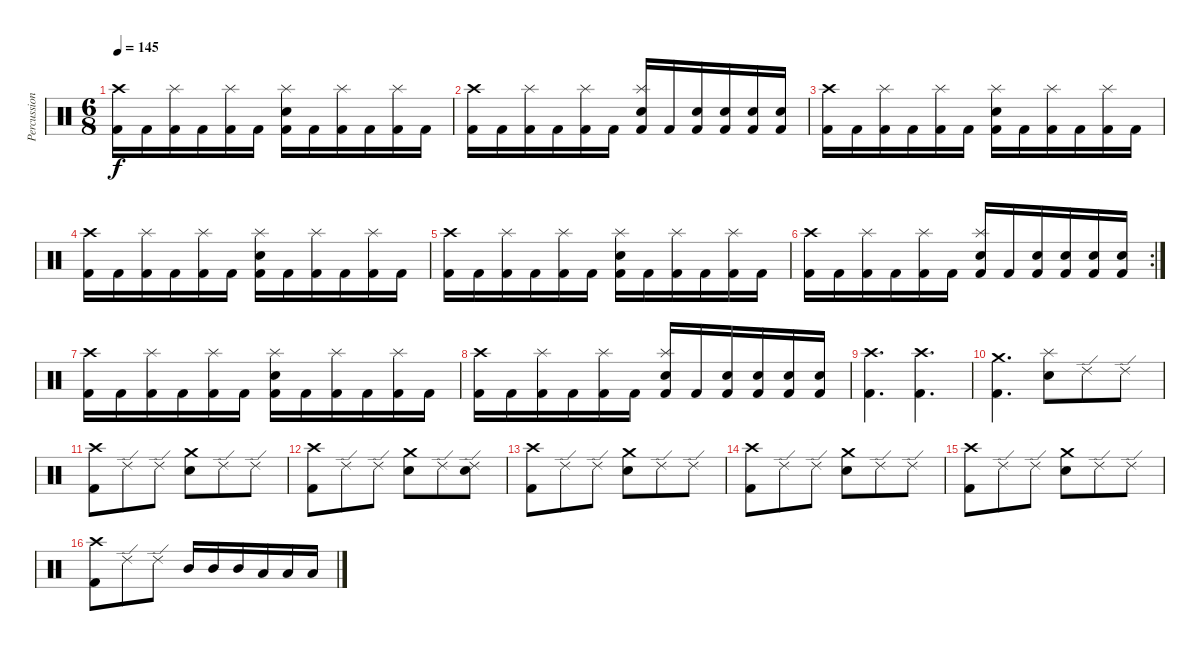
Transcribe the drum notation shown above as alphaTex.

\track ("Percussion" "Percussion") {instrument percussion}
\staff {score}
\articulation defaults
\ts (6 8)
\tempo 145
\clef neutral
\ks c
("Crash high (hit)" "Kick (hit) 2").16{dy f} "Kick (hit) 2".16 ("Splash (hit)" "Kick (hit) 2").16 "Kick (hit) 2".16 ("Splash (hit)" "Kick (hit) 2").16 "Kick (hit) 2".16 ("Splash (hit)" "Electric Snare (hit)" "Kick (hit) 2").16 "Kick (hit) 2".16 ("Splash (hit)" "Kick (hit) 2").16 "Kick (hit) 2".16 ("Splash (hit)" "Kick (hit) 2").16 "Kick (hit) 2".16 |
("Crash high (hit)" "Kick (hit) 2").16 "Kick (hit) 2".16 ("Splash (hit)" "Kick (hit) 2").16 "Kick (hit) 2".16 ("Splash (hit)" "Kick (hit) 2").16 "Kick (hit) 2".16 ("Splash (hit)" "Electric Snare (hit)" "Kick (hit) 2").16 "Kick (hit) 2".16 ("Electric Snare (hit)" "Kick (hit) 2").16 ("Electric Snare (hit)" "Kick (hit) 2").16 ("Electric Snare (hit)" "Kick (hit) 2").16 ("Electric Snare (hit)" "Kick (hit) 2").16 |
("Crash high (hit)" "Kick (hit) 2").16 "Kick (hit) 2".16 ("Splash (hit)" "Kick (hit) 2").16 "Kick (hit) 2".16 ("Splash (hit)" "Kick (hit) 2").16 "Kick (hit) 2".16 ("Splash (hit)" "Electric Snare (hit)" "Kick (hit) 2").16 "Kick (hit) 2".16 ("Splash (hit)" "Kick (hit) 2").16 "Kick (hit) 2".16 ("Splash (hit)" "Kick (hit) 2").16 "Kick (hit) 2".16 |
("Crash high (hit)" "Kick (hit) 2").16 "Kick (hit) 2".16 ("Splash (hit)" "Kick (hit) 2").16 "Kick (hit) 2".16 ("Splash (hit)" "Kick (hit) 2").16 "Kick (hit) 2".16 ("Splash (hit)" "Electric Snare (hit)" "Kick (hit) 2").16 "Kick (hit) 2".16 ("Splash (hit)" "Kick (hit) 2").16 "Kick (hit) 2".16 ("Splash (hit)" "Kick (hit) 2").16 "Kick (hit) 2".16 |
("Crash high (hit)" "Kick (hit) 2").16 "Kick (hit) 2".16 ("Splash (hit)" "Kick (hit) 2").16 "Kick (hit) 2".16 ("Splash (hit)" "Kick (hit) 2").16 "Kick (hit) 2".16 ("Splash (hit)" "Electric Snare (hit)" "Kick (hit) 2").16 "Kick (hit) 2".16 ("Splash (hit)" "Kick (hit) 2").16 "Kick (hit) 2".16 ("Splash (hit)" "Kick (hit) 2").16 "Kick (hit) 2".16 |
\rc 2
("Crash high (hit)" "Kick (hit) 2").16 "Kick (hit) 2".16 ("Splash (hit)" "Kick (hit) 2").16 "Kick (hit) 2".16 ("Splash (hit)" "Kick (hit) 2").16 "Kick (hit) 2".16 ("Splash (hit)" "Electric Snare (hit)" "Kick (hit) 2").16 "Kick (hit) 2".16 ("Electric Snare (hit)" "Kick (hit) 2").16 ("Electric Snare (hit)" "Kick (hit) 2").16 ("Electric Snare (hit)" "Kick (hit) 2").16 ("Electric Snare (hit)" "Kick (hit) 2").16 |
("Crash high (hit)" "Kick (hit) 2").16 "Kick (hit) 2".16 ("Splash (hit)" "Kick (hit) 2").16 "Kick (hit) 2".16 ("Splash (hit)" "Kick (hit) 2").16 "Kick (hit) 2".16 ("Splash (hit)" "Electric Snare (hit)" "Kick (hit) 2").16 "Kick (hit) 2".16 ("Splash (hit)" "Kick (hit) 2").16 "Kick (hit) 2".16 ("Splash (hit)" "Kick (hit) 2").16 "Kick (hit) 2".16 |
("Crash high (hit)" "Kick (hit) 2").16 "Kick (hit) 2".16 ("Splash (hit)" "Kick (hit) 2").16 "Kick (hit) 2".16 ("Splash (hit)" "Kick (hit) 2").16 "Kick (hit) 2".16 ("Splash (hit)" "Electric Snare (hit)" "Kick (hit) 2").16 "Kick (hit) 2".16 ("Electric Snare (hit)" "Kick (hit) 2").16 ("Electric Snare (hit)" "Kick (hit) 2").16 ("Electric Snare (hit)" "Kick (hit) 2").16 ("Electric Snare (hit)" "Kick (hit) 2").16 |
("Crash high (hit)" "Kick (hit) 2").4{d} ("Crash high (hit)" "Kick (hit) 2").4{d} |
("Crash medium (hit)" "Kick (hit) 2").4{d} ("Splash (hit)" "Electric Snare (hit)").8 "Ride (edge) 2".8 "Ride (edge) 2".8 |
("Crash high (hit)" "Kick (hit) 2").8 "Ride (edge) 2".8 "Ride (edge) 2".8 ("Crash medium (hit)" "Electric Snare (hit)").8 "Ride (edge) 2".8 "Ride (edge) 2".8 |
("Crash high (hit)" "Kick (hit) 2").8 "Ride (edge) 2".8 "Ride (edge) 2".8 ("Crash medium (hit)" "Electric Snare (hit)").8 "Ride (edge) 2".8 ("Ride (edge) 2" "Electric Snare (hit)").8 |
("Crash high (hit)" "Kick (hit) 2").8 "Ride (edge) 2".8 "Ride (edge) 2".8 ("Crash medium (hit)" "Electric Snare (hit)").8 "Ride (edge) 2".8 "Ride (edge) 2".8 |
("Crash high (hit)" "Kick (hit) 2").8 "Ride (edge) 2".8 "Ride (edge) 2".8 ("Crash medium (hit)" "Electric Snare (hit)").8 "Ride (edge) 2".8 "Ride (edge) 2".8 |
("Crash high (hit)" "Kick (hit) 2").8 "Ride (edge) 2".8 "Ride (edge) 2".8 ("Crash medium (hit)" "Electric Snare (hit)").8 "Ride (edge) 2".8 "Ride (edge) 2".8 |
("Crash high (hit)" "Kick (hit) 2").8 "Ride (edge) 2".8 "Ride (edge) 2".8 "Mid Tom (hit)".16 "Mid Tom (hit)".16 "Mid Tom (hit)".16 "Low Tom (hit)".16 "Low Tom (hit)".16 "Low Tom (hit)".16
